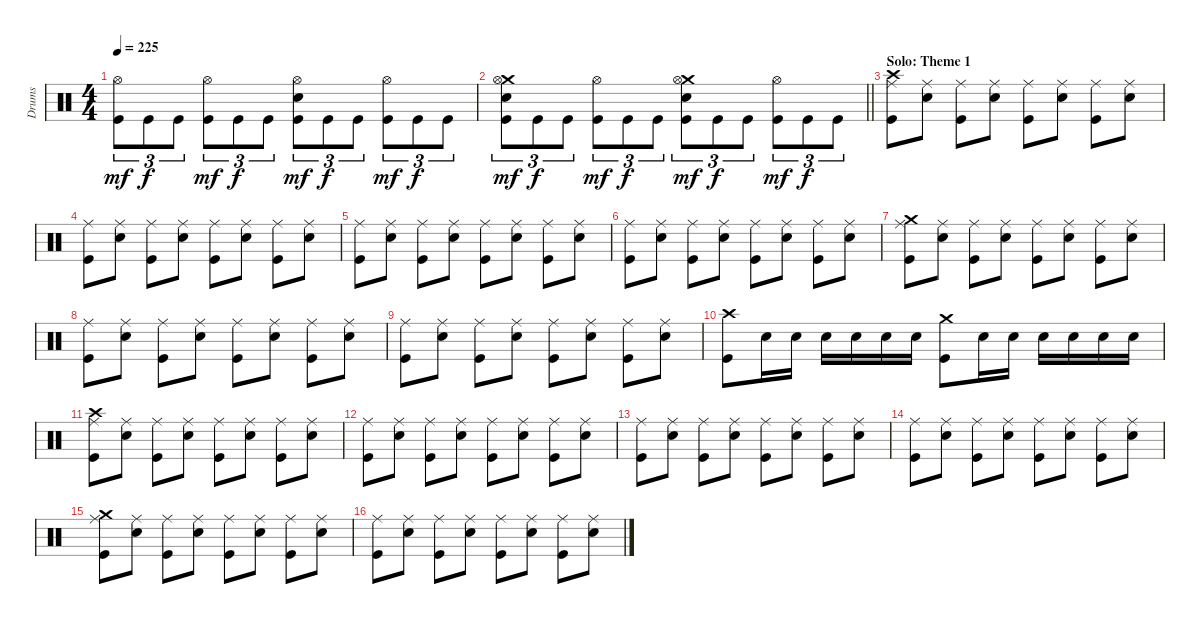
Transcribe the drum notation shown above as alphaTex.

\track ("Drums" "Drums") {instrument percussion}
\staff {score}
\articulation defaults
\ts (4 4)
\tempo 225
\clef neutral
\ks c
("Hi-Hat (open)" "Kick (hit)").8{tu (3 2) dy mf} "Kick (hit)".8{tu (3 2) dy f} "Kick (hit)".8{tu (3 2)} ("Hi-Hat (open)" "Kick (hit)").8{tu (3 2) dy mf} "Kick (hit)".8{tu (3 2) dy f} "Kick (hit)".8{tu (3 2)} ("Hi-Hat (open)" "Electric Snare (hit)" "Kick (hit)").8{tu (3 2) dy mf} "Kick (hit)".8{tu (3 2) dy f} "Kick (hit)".8{tu (3 2)} ("Hi-Hat (open)" "Kick (hit)").8{tu (3 2) dy mf} "Kick (hit)".8{tu (3 2) dy f} "Kick (hit)".8{tu (3 2)} |
\barLineRight lightlight
("Crash medium (hit)" "Hi-Hat (open)" "Electric Snare (hit)" "Kick (hit)").8{tu (3 2) dy mf} "Kick (hit)".8{tu (3 2) dy f} "Kick (hit)".8{tu (3 2)} ("Hi-Hat (open)" "Kick (hit)").8{tu (3 2) dy mf} "Kick (hit)".8{tu (3 2) dy f} "Kick (hit)".8{tu (3 2)} ("Crash medium (hit)" "Hi-Hat (open)" "Electric Snare (hit)" "Kick (hit)").8{tu (3 2) dy mf} "Kick (hit)".8{tu (3 2) dy f} "Kick (hit)".8{tu (3 2)} ("Hi-Hat (open)" "Kick (hit)").8{tu (3 2) dy mf} "Kick (hit)".8{tu (3 2) dy f} "Kick (hit)".8{tu (3 2)} |
\section ("" "Solo: Theme 1")
("Crash high (hit)" "Ride (middle)" "Kick (hit)").8 ("Ride (middle)" "Electric Snare (hit)").8 ("Ride (middle)" "Kick (hit)").8 ("Ride (middle)" "Electric Snare (hit)").8 ("Ride (middle)" "Kick (hit)").8 ("Ride (middle)" "Electric Snare (hit)").8 ("Ride (middle)" "Kick (hit)").8 ("Ride (middle)" "Electric Snare (hit)").8 |
("Ride (middle)" "Kick (hit)").8 ("Ride (middle)" "Electric Snare (hit)").8 ("Ride (middle)" "Kick (hit)").8 ("Ride (middle)" "Electric Snare (hit)").8 ("Ride (middle)" "Kick (hit)").8 ("Ride (middle)" "Electric Snare (hit)").8 ("Ride (middle)" "Kick (hit)").8 ("Ride (middle)" "Electric Snare (hit)").8 |
("Ride (middle)" "Kick (hit)").8 ("Ride (middle)" "Electric Snare (hit)").8 ("Ride (middle)" "Kick (hit)").8 ("Ride (middle)" "Electric Snare (hit)").8 ("Ride (middle)" "Kick (hit)").8 ("Ride (middle)" "Electric Snare (hit)").8 ("Ride (middle)" "Kick (hit)").8 ("Ride (middle)" "Electric Snare (hit)").8 |
("Ride (middle)" "Kick (hit)").8 ("Ride (middle)" "Electric Snare (hit)").8 ("Ride (middle)" "Kick (hit)").8 ("Ride (middle)" "Electric Snare (hit)").8 ("Ride (middle)" "Kick (hit)").8 ("Ride (middle)" "Electric Snare (hit)").8 ("Ride (middle)" "Kick (hit)").8 ("Ride (middle)" "Electric Snare (hit)").8 |
("Crash medium (hit)" "Ride (middle)" "Kick (hit)").8 ("Ride (middle)" "Electric Snare (hit)").8 ("Ride (middle)" "Kick (hit)").8 ("Ride (middle)" "Electric Snare (hit)").8 ("Ride (middle)" "Kick (hit)").8 ("Ride (middle)" "Electric Snare (hit)").8 ("Ride (middle)" "Kick (hit)").8 ("Ride (middle)" "Electric Snare (hit)").8 |
("Ride (middle)" "Kick (hit)").8 ("Ride (middle)" "Electric Snare (hit)").8 ("Ride (middle)" "Kick (hit)").8 ("Ride (middle)" "Electric Snare (hit)").8 ("Ride (middle)" "Kick (hit)").8 ("Ride (middle)" "Electric Snare (hit)").8 ("Ride (middle)" "Kick (hit)").8 ("Ride (middle)" "Electric Snare (hit)").8 |
("Ride (middle)" "Kick (hit)").8 ("Ride (middle)" "Electric Snare (hit)").8 ("Ride (middle)" "Kick (hit)").8 ("Ride (middle)" "Electric Snare (hit)").8 ("Ride (middle)" "Kick (hit)").8 ("Ride (middle)" "Electric Snare (hit)").8 ("Ride (middle)" "Kick (hit)").8 ("Ride (middle)" "Electric Snare (hit)").8 |
("Crash high (hit)" "Kick (hit)").8 "Electric Snare (hit)".16 "Electric Snare (hit)".16 "Electric Snare (hit)".16 "Electric Snare (hit)".16 "Electric Snare (hit)".16 "Electric Snare (hit)".16 ("Crash medium (hit)" "Kick (hit)").8 "Electric Snare (hit)".16 "Electric Snare (hit)".16 "Electric Snare (hit)".16 "Electric Snare (hit)".16 "Electric Snare (hit)".16 "Electric Snare (hit)".16 |
("Crash high (hit)" "Ride (middle)" "Kick (hit)").8 ("Ride (middle)" "Electric Snare (hit)").8 ("Ride (middle)" "Kick (hit)").8 ("Ride (middle)" "Electric Snare (hit)").8 ("Ride (middle)" "Kick (hit)").8 ("Ride (middle)" "Electric Snare (hit)").8 ("Ride (middle)" "Kick (hit)").8 ("Ride (middle)" "Electric Snare (hit)").8 |
("Ride (middle)" "Kick (hit)").8 ("Ride (middle)" "Electric Snare (hit)").8 ("Ride (middle)" "Kick (hit)").8 ("Ride (middle)" "Electric Snare (hit)").8 ("Ride (middle)" "Kick (hit)").8 ("Ride (middle)" "Electric Snare (hit)").8 ("Ride (middle)" "Kick (hit)").8 ("Ride (middle)" "Electric Snare (hit)").8 |
("Ride (middle)" "Kick (hit)").8 ("Ride (middle)" "Electric Snare (hit)").8 ("Ride (middle)" "Kick (hit)").8 ("Ride (middle)" "Electric Snare (hit)").8 ("Ride (middle)" "Kick (hit)").8 ("Ride (middle)" "Electric Snare (hit)").8 ("Ride (middle)" "Kick (hit)").8 ("Ride (middle)" "Electric Snare (hit)").8 |
("Ride (middle)" "Kick (hit)").8 ("Ride (middle)" "Electric Snare (hit)").8 ("Ride (middle)" "Kick (hit)").8 ("Ride (middle)" "Electric Snare (hit)").8 ("Ride (middle)" "Kick (hit)").8 ("Ride (middle)" "Electric Snare (hit)").8 ("Ride (middle)" "Kick (hit)").8 ("Ride (middle)" "Electric Snare (hit)").8 |
("Crash medium (hit)" "Ride (middle)" "Kick (hit)").8 ("Ride (middle)" "Electric Snare (hit)").8 ("Ride (middle)" "Kick (hit)").8 ("Ride (middle)" "Electric Snare (hit)").8 ("Ride (middle)" "Kick (hit)").8 ("Ride (middle)" "Electric Snare (hit)").8 ("Ride (middle)" "Kick (hit)").8 ("Ride (middle)" "Electric Snare (hit)").8 |
("Ride (middle)" "Kick (hit)").8 ("Ride (middle)" "Electric Snare (hit)").8 ("Ride (middle)" "Kick (hit)").8 ("Ride (middle)" "Electric Snare (hit)").8 ("Ride (middle)" "Kick (hit)").8 ("Ride (middle)" "Electric Snare (hit)").8 ("Ride (middle)" "Kick (hit)").8 ("Ride (middle)" "Electric Snare (hit)").8
